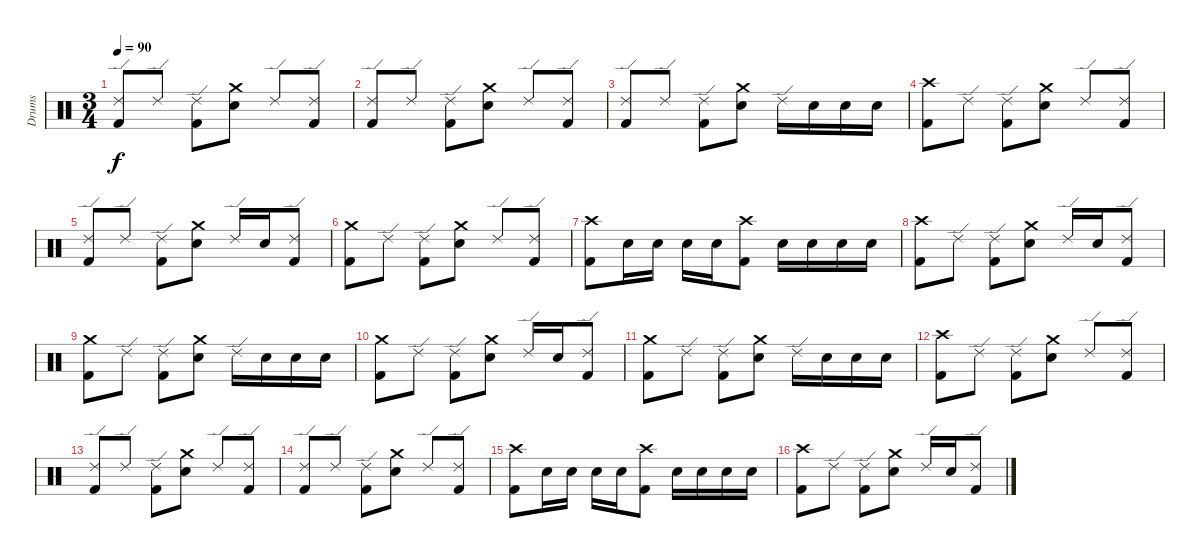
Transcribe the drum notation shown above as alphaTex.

\track ("Drums" "Drums") {instrument percussion}
\staff {score}
\articulation defaults
\ts (3 4)
\tempo 90
\clef neutral
\ks c
("Ride (edge) 2" "Kick (hit) 2").8{dy f} "Ride (edge) 2".8 ("Ride (edge) 2" "Kick (hit) 2").8 ("Crash medium (hit)" "Electric Snare (hit)").8 "Ride (edge) 2".8 ("Ride (edge) 2" "Kick (hit) 2").8 |
("Ride (edge) 2" "Kick (hit) 2").8 "Ride (edge) 2".8 ("Ride (edge) 2" "Kick (hit) 2").8 ("Crash medium (hit)" "Electric Snare (hit)").8 "Ride (edge) 2".8 ("Ride (edge) 2" "Kick (hit) 2").8 |
("Ride (edge) 2" "Kick (hit) 2").8 "Ride (edge) 2".8 ("Ride (edge) 2" "Kick (hit) 2").8 ("Crash medium (hit)" "Electric Snare (hit)").8 "Ride (edge) 2".16 "Electric Snare (hit)".16 "Electric Snare (hit)".16 "Electric Snare (hit)".16 |
("Crash high (hit)" "Kick (hit) 2").8 "Ride (edge) 2".8 ("Ride (edge) 2" "Kick (hit) 2").8 ("Crash medium (hit)" "Electric Snare (hit)").8 "Ride (edge) 2".8 ("Ride (edge) 2" "Kick (hit) 2").8 |
("Ride (edge) 2" "Kick (hit) 2").8 "Ride (edge) 2".8 ("Ride (edge) 2" "Kick (hit) 2").8 ("Crash medium (hit)" "Electric Snare (hit)").8 "Ride (edge) 2".16 "Electric Snare (hit)".16 ("Ride (edge) 2" "Kick (hit) 2").8 |
("Crash medium (hit)" "Kick (hit) 2").8 "Ride (edge) 2".8 ("Ride (edge) 2" "Kick (hit) 2").8 ("Crash medium (hit)" "Electric Snare (hit)").8 "Ride (edge) 2".8 ("Ride (edge) 2" "Kick (hit) 2").8 |
("Crash high (hit)" "Kick (hit) 2").8 "Electric Snare (hit)".16 "Electric Snare (hit)".16 "Electric Snare (hit)".16 "Electric Snare (hit)".16 ("Crash high (hit)" "Kick (hit) 2").8 "Electric Snare (hit)".16 "Electric Snare (hit)".16 "Electric Snare (hit)".16 "Electric Snare (hit)".16 |
("Crash high (hit)" "Kick (hit) 2").8 "Ride (edge) 2".8 ("Ride (edge) 2" "Kick (hit) 2").8 ("Crash medium (hit)" "Electric Snare (hit)").8 "Ride (edge) 2".16 "Electric Snare (hit)".16 ("Ride (edge) 2" "Kick (hit) 2").8 |
("Crash medium (hit)" "Kick (hit) 2").8 "Ride (edge) 2".8 ("Ride (edge) 2" "Kick (hit) 2").8 ("Crash medium (hit)" "Electric Snare (hit)").8 "Ride (edge) 2".16 "Electric Snare (hit)".16 "Electric Snare (hit)".16 "Electric Snare (hit)".16 |
("Crash medium (hit)" "Kick (hit) 2").8 "Ride (edge) 2".8 ("Ride (edge) 2" "Kick (hit) 2").8 ("Crash medium (hit)" "Electric Snare (hit)").8 "Ride (edge) 2".16 "Electric Snare (hit)".16 ("Ride (edge) 2" "Kick (hit) 2").8 |
("Crash medium (hit)" "Kick (hit) 2").8 "Ride (edge) 2".8 ("Ride (edge) 2" "Kick (hit) 2").8 ("Crash medium (hit)" "Electric Snare (hit)").8 "Ride (edge) 2".16 "Electric Snare (hit)".16 "Electric Snare (hit)".16 "Electric Snare (hit)".16 |
("Crash high (hit)" "Kick (hit) 2").8 "Ride (edge) 2".8 ("Ride (edge) 2" "Kick (hit) 2").8 ("Crash medium (hit)" "Electric Snare (hit)").8 "Ride (edge) 2".8 ("Ride (edge) 2" "Kick (hit) 2").8 |
("Ride (edge) 2" "Kick (hit) 2").8 "Ride (edge) 2".8 ("Ride (edge) 2" "Kick (hit) 2").8 ("Crash medium (hit)" "Electric Snare (hit)").8 "Ride (edge) 2".8 ("Ride (edge) 2" "Kick (hit) 2").8 |
("Ride (edge) 2" "Kick (hit) 2").8 "Ride (edge) 2".8 ("Ride (edge) 2" "Kick (hit) 2").8 ("Crash medium (hit)" "Electric Snare (hit)").8 "Ride (edge) 2".8 ("Ride (edge) 2" "Kick (hit) 2").8 |
("Crash high (hit)" "Kick (hit) 2").8 "Electric Snare (hit)".16 "Electric Snare (hit)".16 "Electric Snare (hit)".16 "Electric Snare (hit)".16 ("Crash high (hit)" "Kick (hit) 2").8 "Electric Snare (hit)".16 "Electric Snare (hit)".16 "Electric Snare (hit)".16 "Electric Snare (hit)".16 |
("Crash high (hit)" "Kick (hit) 2").8 "Ride (edge) 2".8 ("Ride (edge) 2" "Kick (hit) 2").8 ("Crash medium (hit)" "Electric Snare (hit)").8 "Ride (edge) 2".16 "Electric Snare (hit)".16 ("Ride (edge) 2" "Kick (hit) 2").8
